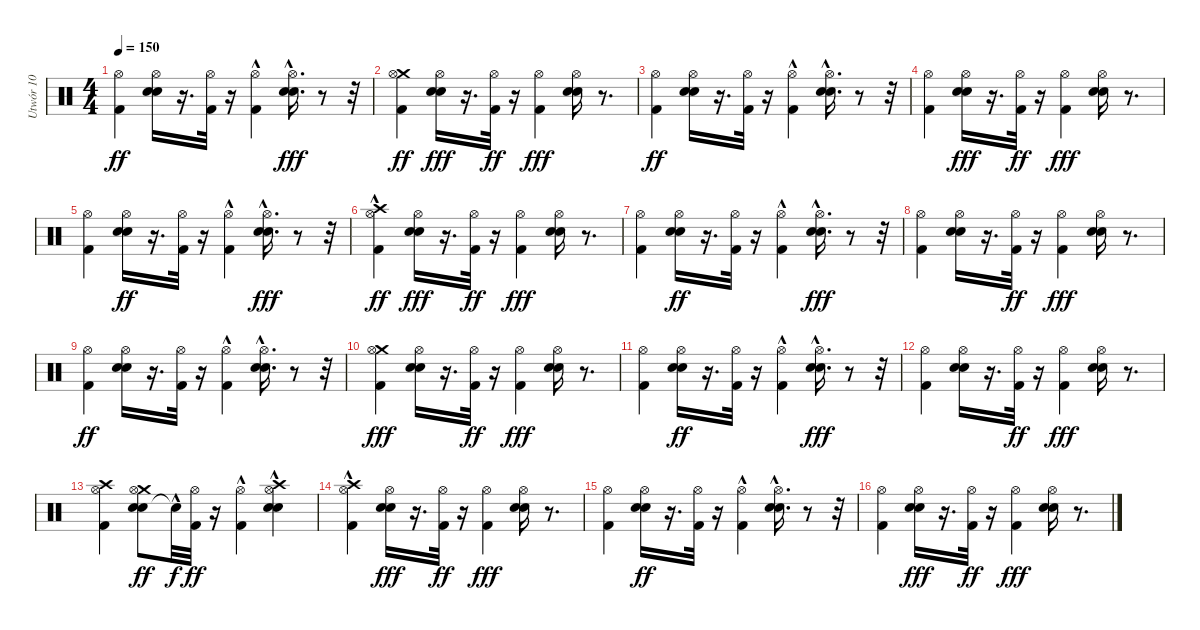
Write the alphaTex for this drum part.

\track ("Utwór 10" "Utwór 10") {instrument percussion}
\staff {score}
\articulation defaults
\ts (4 4)
\tempo 150
\clef neutral
\ks c
("Kick (hit) 2" "Hi-Hat (open)").4{dy ff} ("Snare (hit) 2" "Hi-Hat (open)" "Hand Clap (hit)").16 r.16{d} ("Kick (hit) 2" "Hi-Hat (open)").32 r.16 ("Kick (hit) 2"{hac} "Hi-Hat (open)").4 ("Hi-Hat (open)" "Snare (hit) 2" "Hand Clap (hit)"{hac}).16{d dy fff} r.8 r.32 |
("Kick (hit) 2" "Crash medium (hit)" "Hi-Hat (open)").4{dy ff} ("Hi-Hat (open)" "Hand Clap (hit)" "Snare (hit) 2").16{dy fff} r.16{d} ("Hi-Hat (open)" "Kick (hit) 2").32{dy ff} r.16 ("Hi-Hat (open)" "Kick (hit) 2").4{dy fff} ("Hi-Hat (open)" "Hand Clap (hit)" "Snare (hit) 2").16 r.8{d} |
("Kick (hit) 2" "Hi-Hat (open)").4{dy ff} ("Hand Clap (hit)" "Hi-Hat (open)" "Snare (hit) 2").16 r.16{d} ("Hi-Hat (open)" "Kick (hit) 2").32 r.16 ("Hi-Hat (open)" "Kick (hit) 2"{hac}).4 ("Hi-Hat (open)" "Hand Clap (hit)"{hac} "Snare (hit) 2").16{d} r.8 r.32 |
("Kick (hit) 2" "Hi-Hat (open)").4 ("Snare (hit) 2" "Hi-Hat (open)" "Hand Clap (hit)").16{dy fff} r.16{d} ("Kick (hit) 2" "Hi-Hat (open)").32{dy ff} r.16 ("Kick (hit) 2" "Hi-Hat (open)").4{dy fff} ("Hi-Hat (open)" "Snare (hit) 2" "Hand Clap (hit)").16 r.8{d} |
("Hi-Hat (open)" "Kick (hit) 2").4 ("Hi-Hat (open)" "Hand Clap (hit)" "Snare (hit) 2").16{dy ff} r.16{d} ("Kick (hit) 2" "Hi-Hat (open)").32 r.16 ("Hi-Hat (open)" "Kick (hit) 2"{hac}).4 ("Hi-Hat (open)" "Snare (hit) 2" "Hand Clap (hit)"{hac}).16{d dy fff} r.8 r.32 |
("Kick (hit) 2" "Crash high (hit)"{hac} "Hi-Hat (open)").4{dy ff} ("Snare (hit) 2" "Hand Clap (hit)" "Hi-Hat (open)").16{dy fff} r.16{d} ("Hi-Hat (open)" "Kick (hit) 2").32{dy ff} r.16 ("Kick (hit) 2" "Hi-Hat (open)").4{dy fff} ("Hi-Hat (open)" "Hand Clap (hit)" "Snare (hit) 2").16 r.8{d} |
("Hi-Hat (open)" "Kick (hit) 2").4 ("Hand Clap (hit)" "Snare (hit) 2" "Hi-Hat (open)").16{dy ff} r.16{d} ("Kick (hit) 2" "Hi-Hat (open)").32 r.16 ("Kick (hit) 2"{hac} "Hi-Hat (open)").4 ("Hi-Hat (open)" "Snare (hit) 2" "Hand Clap (hit)"{hac}).16{d dy fff} r.8 r.32 |
("Hi-Hat (open)" "Kick (hit) 2").4 ("Snare (hit) 2" "Hand Clap (hit)" "Hi-Hat (open)").16 r.16{d} ("Kick (hit) 2" "Hi-Hat (open)").32{dy ff} r.16 ("Hi-Hat (open)" "Kick (hit) 2").4{dy fff} ("Hi-Hat (open)" "Hand Clap (hit)" "Snare (hit) 2").16 r.8{d} |
("Kick (hit) 2" "Hi-Hat (open)").4{dy ff} ("Snare (hit) 2" "Hand Clap (hit)" "Hi-Hat (open)").16 r.16{d} ("Hi-Hat (open)" "Kick (hit) 2").32 r.16 ("Kick (hit) 2"{hac} "Hi-Hat (open)").4 ("Hand Clap (hit)"{hac} "Snare (hit) 2" "Hi-Hat (open)").16{d} r.8 r.32 |
("Crash medium (hit)" "Hi-Hat (open)" "Kick (hit) 2").4{dy fff} ("Hi-Hat (open)" "Snare (hit) 2" "Hand Clap (hit)").16 r.16{d} ("Hi-Hat (open)" "Kick (hit) 2").32{dy ff} r.16 ("Kick (hit) 2" "Hi-Hat (open)").4{dy fff} ("Snare (hit) 2" "Hi-Hat (open)" "Hand Clap (hit)").16 r.8{d} |
("Hi-Hat (open)" "Kick (hit) 2").4 ("Hi-Hat (open)" "Snare (hit) 2" "Hand Clap (hit)").16{dy ff} r.16{d} ("Kick (hit) 2" "Hi-Hat (open)").32 r.16 ("Hi-Hat (open)" "Kick (hit) 2"{hac}).4 ("Snare (hit) 2" "Hi-Hat (open)" "Hand Clap (hit)"{hac}).16{d dy fff} r.8 r.32 |
("Hi-Hat (open)" "Kick (hit) 2").4 ("Hand Clap (hit)" "Snare (hit) 2" "Hi-Hat (open)").16 r.16{d} ("Kick (hit) 2" "Hi-Hat (open)").32{dy ff} r.16 ("Hi-Hat (open)" "Kick (hit) 2").4{dy fff} ("Hi-Hat (open)" "Snare (hit) 2" "Hand Clap (hit)").16 r.8{d} |
("Crash high (hit)" "Hi-Hat (open)" "Kick (hit) 2").4 ("Hand Clap (hit)" "Crash medium (hit)" "Hi-Hat (open)" "Snare (hit) 2").8{dy ff} "Snare (hit)"{hac t}.32{dy f} ("Kick (hit) 2" "Hi-Hat (open)").32{dy ff} r.16 ("Kick (hit) 2"{hac} "Hi-Hat (open)").4 ("Hi-Hat (open)" "Crash high (hit)" "Hand Clap (hit)"{hac} "Snare (hit) 2").4 |
("Hi-Hat (open)" "Kick (hit) 2" "Crash high (hit)"{hac}).4 ("Hand Clap (hit)" "Snare (hit) 2" "Hi-Hat (open)").16{dy fff} r.16{d} ("Kick (hit) 2" "Hi-Hat (open)").32{dy ff} r.16 ("Hi-Hat (open)" "Kick (hit) 2").4{dy fff} ("Snare (hit) 2" "Hi-Hat (open)" "Hand Clap (hit)").16 r.8{d} |
("Hi-Hat (open)" "Kick (hit) 2").4 ("Snare (hit) 2" "Hi-Hat (open)" "Hand Clap (hit)").16{dy ff} r.16{d} ("Hi-Hat (open)" "Kick (hit) 2").32 r.16 ("Hi-Hat (open)" "Kick (hit) 2"{hac}).4 ("Hand Clap (hit)"{hac} "Hi-Hat (open)" "Snare (hit) 2").16{d} r.8 r.32 |
("Kick (hit) 2" "Hi-Hat (open)").4 ("Hand Clap (hit)" "Snare (hit) 2" "Hi-Hat (open)").16{dy fff} r.16{d} ("Kick (hit) 2" "Hi-Hat (open)").32{dy ff} r.16 ("Hi-Hat (open)" "Kick (hit) 2").4{dy fff} ("Snare (hit) 2" "Hi-Hat (open)" "Hand Clap (hit)").16 r.8{d}
